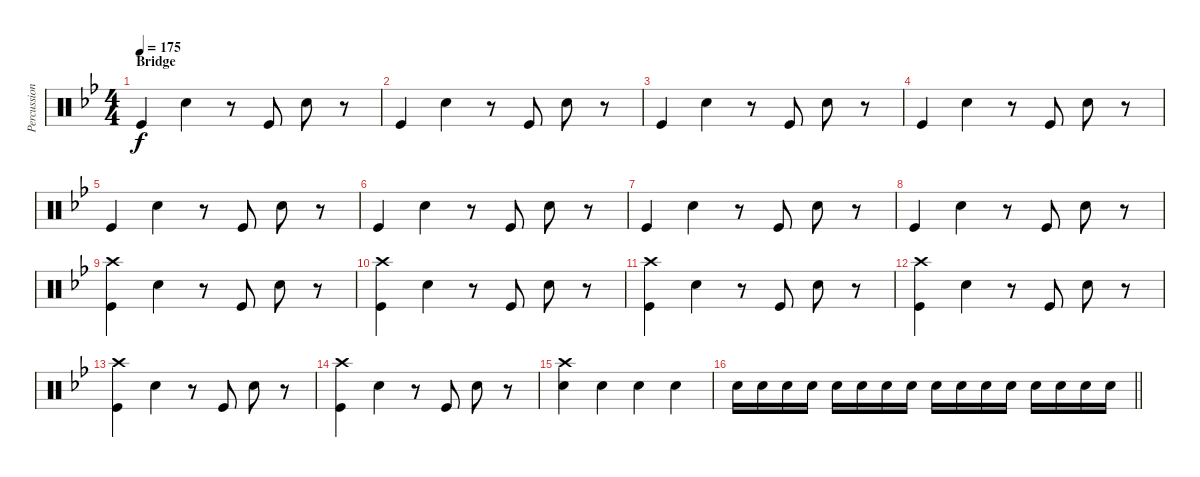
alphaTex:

\track ("Percussion" "Percussion") {instrument percussion}
\staff {score}
\articulation defaults
\ts (4 4)
\section ("" "Bridge")
\tempo 175
\clef neutral
\ks bb "Kick (hit)".4{dy f} "Snare (hit) 2".4
r.8 "Kick (hit)".8 "Snare (hit) 2".8 r.8 |
"Kick (hit)".4 "Snare (hit) 2".4 r.8 "Kick (hit)".8 "Snare (hit) 2".8 r.8 |
"Kick (hit)".4 "Snare (hit) 2".4 r.8 "Kick (hit)".8 "Snare (hit) 2".8 r.8 |
"Kick (hit)".4 "Snare (hit) 2".4 r.8 "Kick (hit)".8 "Snare (hit) 2".8 r.8 |
"Kick (hit)".4 "Snare (hit) 2".4 r.8 "Kick (hit)".8 "Snare (hit) 2".8 r.8 |
"Kick (hit)".4 "Snare (hit) 2".4 r.8 "Kick (hit)".8 "Snare (hit) 2".8 r.8 |
"Kick (hit)".4 "Snare (hit) 2".4 r.8 "Kick (hit)".8 "Snare (hit) 2".8 r.8 |
"Kick (hit)".4 "Snare (hit) 2".4 r.8 "Kick (hit)".8 "Snare (hit) 2".8 r.8 |
("Kick (hit)" "Crash high (hit)").4 "Snare (hit) 2".4 r.8 "Kick (hit)".8 "Snare (hit) 2".8 r.8 |
("Kick (hit)" "Crash high (hit)").4 "Snare (hit) 2".4 r.8 "Kick (hit)".8 "Snare (hit) 2".8 r.8 |
("Kick (hit)" "Crash high (hit)").4 "Snare (hit) 2".4 r.8 "Kick (hit)".8 "Snare (hit) 2".8 r.8 |
("Kick (hit)" "Crash high (hit)").4 "Snare (hit) 2".4 r.8 "Kick (hit)".8 "Snare (hit) 2".8 r.8 |
("Kick (hit)" "Crash high (hit)").4 "Snare (hit) 2".4 r.8 "Kick (hit)".8 "Snare (hit) 2".8 r.8 |
("Kick (hit)" "Crash high (hit)").4 "Snare (hit) 2".4 r.8 "Kick (hit)".8 "Snare (hit) 2".8 r.8 |
("Snare (hit) 2" "Crash high (hit)").4 "Snare (hit) 2".4 "Snare (hit) 2".4 "Snare (hit) 2".4 |
\barLineRight lightlight "Snare (hit) 2".16 "Snare (hit) 2".16 "Snare (hit) 2".16 "Snare (hit) 2".16 "Snare (hit) 2".16 "Snare (hit) 2".16 "Snare (hit) 2".16 "Snare (hit) 2".16 "Snare (hit) 2".16 "Snare (hit) 2".16 "Snare (hit) 2".16 "Snare (hit) 2".16 "Snare (hit) 2".16 "Snare (hit) 2".16 "Snare (hit) 2".16 "Snare (hit) 2".16
